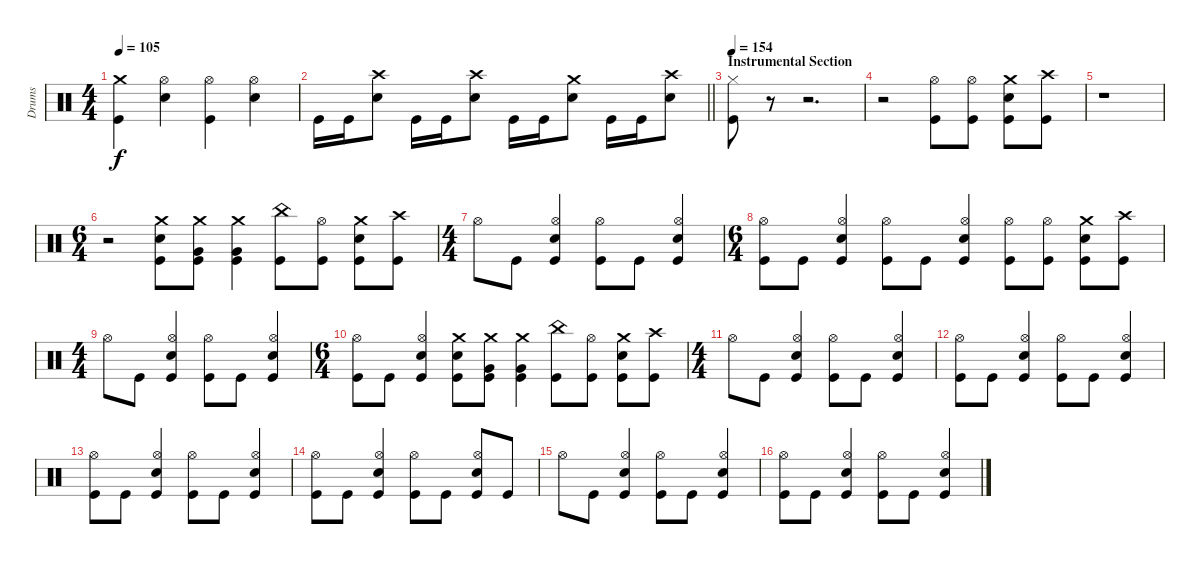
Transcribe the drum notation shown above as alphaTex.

\track ("Drums" "Drums") {instrument percussion}
\staff {score}
\articulation defaults
\ts (4 4)
\tempo 105
\clef neutral
\ks c
("Crash medium (hit)" "Kick (hit)").4{dy f} ("Hi-Hat (open)" "Electric Snare (hit)").4 ("Hi-Hat (open)" "Kick (hit)").4 ("Hi-Hat (open)" "Electric Snare (hit)").4 |
\barLineRight lightlight "Kick (hit)".16 "Kick (hit)".16
("Crash high (hit)" "Electric Snare (hit)").8 "Kick (hit)".16 "Kick (hit)".16 ("Crash high (hit)" "Electric Snare (hit)").8 "Kick (hit)".16 "Kick (hit)".16 ("Crash medium (hit)" "Electric Snare (hit)").8 "Kick (hit)".16 "Kick (hit)".16 ("Crash high (hit)" "Electric Snare (hit)").8 |
\section ("" "Instrumental Section")
\tempo 154
("Hi-Hat (closed)" "Kick (hit)").8 r.8 r.2{d} |
r.2 ("Hi-Hat (open)" "Kick (hit)").8 ("Hi-Hat (open)" "Kick (hit)").8 ("Crash medium (hit)" "Electric Snare (hit)" "Kick (hit)").8 ("Crash high (hit)" "Kick (hit)").8 |
r.1 |
\ts (6 4)
r.2 ("Crash medium (hit)" "Electric Snare (hit)" "Kick (hit)").8 ("Crash medium (hit)" "Very Low Tom (hit)" "Kick (hit)").8 ("Crash medium (hit)" "Very Low Tom (hit)" "Kick (hit)").4 ("China (hit)" "Kick (hit)").8 ("Hi-Hat (open)" "Kick (hit)").8 ("Crash medium (hit)" "Electric Snare (hit)" "Kick (hit)").8 ("Crash high (hit)" "Kick (hit)").8 |
\ts (4 4)
"Hi-Hat (open)".8 "Kick (hit)".8 ("Hi-Hat (open)" "Electric Snare (hit)" "Kick (hit)").4 ("Hi-Hat (open)" "Kick (hit)").8 "Kick (hit)".8 ("Hi-Hat (open)" "Electric Snare (hit)" "Kick (hit)").4 |
\ts (6 4)
("Hi-Hat (open)" "Kick (hit)").8 "Kick (hit)".8 ("Hi-Hat (open)" "Electric Snare (hit)" "Kick (hit)").4 ("Hi-Hat (open)" "Kick (hit)").8 "Kick (hit)".8 ("Hi-Hat (open)" "Electric Snare (hit)" "Kick (hit)").4 ("Hi-Hat (open)" "Kick (hit)").8 ("Hi-Hat (open)" "Kick (hit)").8 ("Crash medium (hit)" "Electric Snare (hit)" "Kick (hit)").8 ("Crash high (hit)" "Kick (hit)").8 |
\ts (4 4)
"Hi-Hat (open)".8 "Kick (hit)".8 ("Hi-Hat (open)" "Electric Snare (hit)" "Kick (hit)").4 ("Hi-Hat (open)" "Kick (hit)").8 "Kick (hit)".8 ("Hi-Hat (open)" "Electric Snare (hit)" "Kick (hit)").4 |
\ts (6 4)
("Hi-Hat (open)" "Kick (hit)").8 "Kick (hit)".8 ("Hi-Hat (open)" "Electric Snare (hit)" "Kick (hit)").4 ("Crash medium (hit)" "Electric Snare (hit)" "Kick (hit)").8 ("Crash medium (hit)" "Very Low Tom (hit)" "Kick (hit)").8 ("Crash medium (hit)" "Very Low Tom (hit)" "Kick (hit)").4 ("China (hit)" "Kick (hit)").8 ("Hi-Hat (open)" "Kick (hit)").8 ("Crash medium (hit)" "Electric Snare (hit)" "Kick (hit)").8 ("Crash high (hit)" "Kick (hit)").8 |
\ts (4 4)
"Hi-Hat (open)".8 "Kick (hit)".8 ("Hi-Hat (open)" "Electric Snare (hit)" "Kick (hit)").4 ("Hi-Hat (open)" "Kick (hit)").8 "Kick (hit)".8 ("Hi-Hat (open)" "Electric Snare (hit)" "Kick (hit)").4 |
("Hi-Hat (open)" "Kick (hit)").8 "Kick (hit)".8 ("Hi-Hat (open)" "Electric Snare (hit)" "Kick (hit)").4 ("Hi-Hat (open)" "Kick (hit)").8 "Kick (hit)".8 ("Hi-Hat (open)" "Electric Snare (hit)" "Kick (hit)").4 |
("Hi-Hat (open)" "Kick (hit)").8 "Kick (hit)".8 ("Hi-Hat (open)" "Electric Snare (hit)" "Kick (hit)").4 ("Hi-Hat (open)" "Kick (hit)").8 "Kick (hit)".8 ("Hi-Hat (open)" "Electric Snare (hit)" "Kick (hit)").4 |
("Hi-Hat (open)" "Kick (hit)").8 "Kick (hit)".8 ("Hi-Hat (open)" "Electric Snare (hit)" "Kick (hit)").4 ("Hi-Hat (open)" "Kick (hit)").8 "Kick (hit)".8 ("Hi-Hat (open)" "Electric Snare (hit)" "Kick (hit)").8 "Kick (hit)".8 |
"Hi-Hat (open)".8 "Kick (hit)".8 ("Hi-Hat (open)" "Electric Snare (hit)" "Kick (hit)").4 ("Hi-Hat (open)" "Kick (hit)").8 "Kick (hit)".8 ("Hi-Hat (open)" "Electric Snare (hit)" "Kick (hit)").4 |
("Hi-Hat (open)" "Kick (hit)").8 "Kick (hit)".8 ("Hi-Hat (open)" "Electric Snare (hit)" "Kick (hit)").4 ("Hi-Hat (open)" "Kick (hit)").8 "Kick (hit)".8 ("Hi-Hat (open)" "Electric Snare (hit)" "Kick (hit)").4
